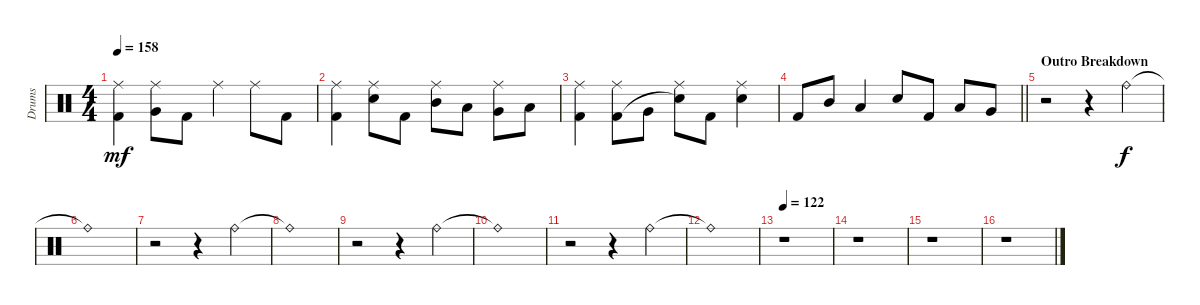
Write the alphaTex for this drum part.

\track ("Drums" "Drums") {instrument percussion}
\staff {score}
\articulation defaults
\ts (4 4)
\tempo 158
\clef neutral
\ks c
("Ride (middle)" "Kick (hit) 2").4{dy mf} ("Ride (middle)" "Very Low Tom (hit)").8 "Kick (hit) 2".8 "Ride (middle)".4 "Ride (middle)".8 "Kick (hit) 2".8 |
("Ride (middle)" "Kick (hit) 2").4 ("Ride (middle)" "Electric Snare (hit)").8 "Kick (hit) 2".8 ("Ride (middle)" "Mid Tom (hit)").8 "Low Tom (hit)".8 ("Ride (middle)" "Very Low Tom (hit)").8 "Low Floor Tom (hit)".8 |
("Ride (middle)" "Kick (hit) 2").4 ("Ride (middle)" "Kick (hit) 2").8 "Very Low Tom (hit)".8 ("Ride (middle)" "Snare (hit)"{t}).8 "Kick (hit) 2".8 ("Ride (middle)" "Electric Snare (hit)").4 |
\barLineRight lightlight "Kick (hit) 2".8 "Mid Tom (hit)".8 "Low Tom (hit)".4 "Electric Snare (hit)".8 "Kick (hit) 2".8 "Low Tom (hit)".8 "Very Low Tom (hit)".8
|
\section ("" "Outro Breakdown")
r.2 r.4 "Ride (bell)".4{dy f} |
"Ride (bell)"{t}.1 |
r.2 r.4 "Ride (bell)".4 |
"Ride (bell)"{t}.1 |
r.2 r.4 "Ride (bell)".4 |
"Ride (bell)"{t}.1 |
r.2 r.4 "Ride (bell)".4 |
"Ride (bell)"{t}.1 |
\tempo 122
r.1 |
r.1 |
r.1 |
r.1
